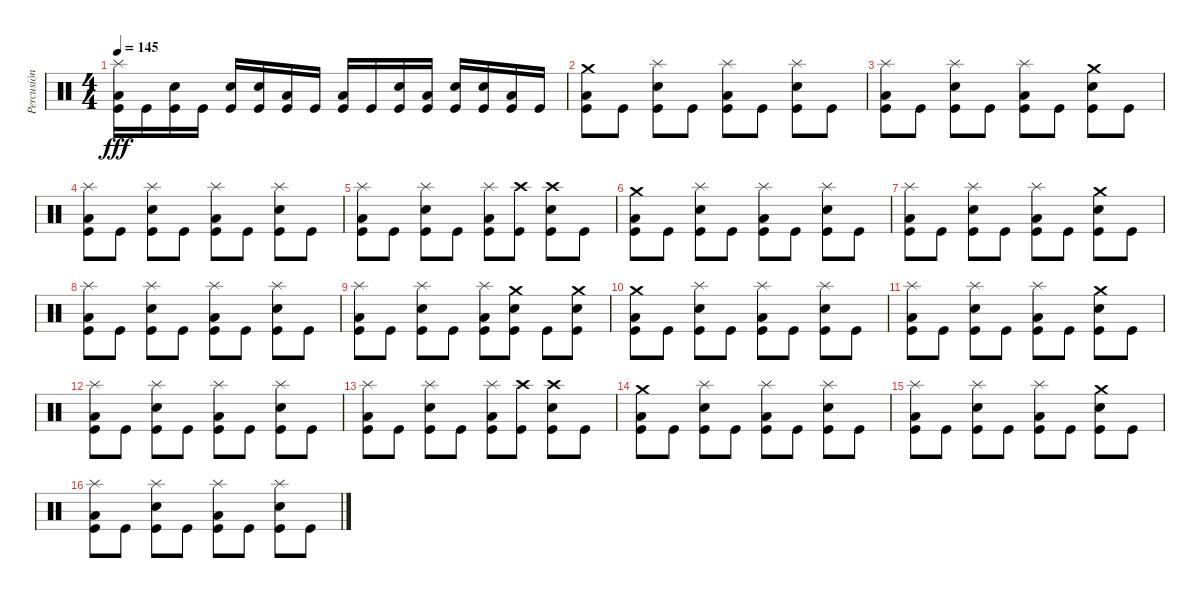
\track ("Percusión" "Percusión") {instrument percussion}
\staff {score}
\articulation defaults
\ts (4 4)
\tempo 145
\clef neutral
\ks c
("Splash (hit)" "Low Floor Tom (hit)" "Kick (hit)").16{dy fff} "Kick (hit)".16 ("Snare (hit) 2" "Kick (hit)").16 "Kick (hit)".16 ("Snare (hit) 2" "Kick (hit)").16 ("Snare (hit) 2" "Kick (hit)").16 ("Low Floor Tom (hit)" "Kick (hit)").16 "Kick (hit)".16 ("Low Floor Tom (hit)" "Kick (hit)").16 "Kick (hit)".16 ("Snare (hit) 2" "Kick (hit)").16 ("Low Floor Tom (hit)" "Kick (hit)").16 ("Snare (hit) 2" "Kick (hit)").16 ("Snare (hit) 2" "Kick (hit)").16 ("Low Floor Tom (hit)" "Kick (hit)").16 "Kick (hit)".16 |
("Crash medium (hit)" "Low Floor Tom (hit)" "Kick (hit)").8 "Kick (hit)".8 ("Splash (hit)" "Snare (hit) 2" "Kick (hit)").8 "Kick (hit)".8 ("Splash (hit)" "Low Floor Tom (hit)" "Kick (hit)").8 "Kick (hit)".8 ("Splash (hit)" "Snare (hit) 2" "Kick (hit)").8 "Kick (hit)".8 |
("Splash (hit)" "Low Floor Tom (hit)" "Kick (hit)").8 "Kick (hit)".8 ("Splash (hit)" "Snare (hit) 2" "Kick (hit)").8 "Kick (hit)".8 ("Splash (hit)" "Low Floor Tom (hit)" "Kick (hit)").8 "Kick (hit)".8 ("Crash medium (hit)" "Snare (hit) 2" "Kick (hit)").8 "Kick (hit)".8 |
("Splash (hit)" "Low Floor Tom (hit)" "Kick (hit)").8 "Kick (hit)".8 ("Splash (hit)" "Snare (hit) 2" "Kick (hit)").8 "Kick (hit)".8 ("Splash (hit)" "Low Floor Tom (hit)" "Kick (hit)").8 "Kick (hit)".8 ("Splash (hit)" "Snare (hit) 2" "Kick (hit)").8 "Kick (hit)".8 |
("Splash (hit)" "Low Floor Tom (hit)" "Kick (hit)").8 "Kick (hit)".8 ("Splash (hit)" "Snare (hit) 2" "Kick (hit)").8 "Kick (hit)".8 ("Splash (hit)" "Low Floor Tom (hit)" "Kick (hit)").8 ("Crash high (hit)" "Kick (hit)").8 ("Crash high (hit)" "Snare (hit) 2" "Kick (hit)").8 "Kick (hit)".8 |
("Crash medium (hit)" "Low Floor Tom (hit)" "Kick (hit)").8 "Kick (hit)".8 ("Splash (hit)" "Snare (hit) 2" "Kick (hit)").8 "Kick (hit)".8 ("Splash (hit)" "Low Floor Tom (hit)" "Kick (hit)").8 "Kick (hit)".8 ("Splash (hit)" "Snare (hit) 2" "Kick (hit)").8 "Kick (hit)".8 |
("Splash (hit)" "Low Floor Tom (hit)" "Kick (hit)").8 "Kick (hit)".8 ("Splash (hit)" "Snare (hit) 2" "Kick (hit)").8 "Kick (hit)".8 ("Splash (hit)" "Low Floor Tom (hit)" "Kick (hit)").8 "Kick (hit)".8 ("Crash medium (hit)" "Snare (hit) 2" "Kick (hit)").8 "Kick (hit)".8 |
("Splash (hit)" "Low Floor Tom (hit)" "Kick (hit)").8 "Kick (hit)".8 ("Splash (hit)" "Snare (hit) 2" "Kick (hit)").8 "Kick (hit)".8 ("Splash (hit)" "Low Floor Tom (hit)" "Kick (hit)").8 "Kick (hit)".8 ("Splash (hit)" "Snare (hit) 2" "Kick (hit)").8 "Kick (hit)".8 |
("Splash (hit)" "Low Floor Tom (hit)" "Kick (hit)").8 "Kick (hit)".8 ("Splash (hit)" "Snare (hit) 2" "Kick (hit)").8 "Kick (hit)".8 ("Splash (hit)" "Low Floor Tom (hit)" "Kick (hit)").8 ("Crash medium (hit)" "Snare (hit) 2" "Kick (hit)").8 "Kick (hit)".8 ("Crash medium (hit)" "Snare (hit) 2" "Kick (hit)").8 |
("Crash medium (hit)" "Low Floor Tom (hit)" "Kick (hit)").8 "Kick (hit)".8 ("Splash (hit)" "Snare (hit) 2" "Kick (hit)").8 "Kick (hit)".8 ("Splash (hit)" "Low Floor Tom (hit)" "Kick (hit)").8 "Kick (hit)".8 ("Splash (hit)" "Snare (hit) 2" "Kick (hit)").8 "Kick (hit)".8 |
("Splash (hit)" "Low Floor Tom (hit)" "Kick (hit)").8 "Kick (hit)".8 ("Splash (hit)" "Snare (hit) 2" "Kick (hit)").8 "Kick (hit)".8 ("Splash (hit)" "Low Floor Tom (hit)" "Kick (hit)").8 "Kick (hit)".8 ("Crash medium (hit)" "Snare (hit) 2" "Kick (hit)").8 "Kick (hit)".8 |
("Splash (hit)" "Low Floor Tom (hit)" "Kick (hit)").8 "Kick (hit)".8 ("Splash (hit)" "Snare (hit) 2" "Kick (hit)").8 "Kick (hit)".8 ("Splash (hit)" "Low Floor Tom (hit)" "Kick (hit)").8 "Kick (hit)".8 ("Splash (hit)" "Snare (hit) 2" "Kick (hit)").8 "Kick (hit)".8 |
("Splash (hit)" "Low Floor Tom (hit)" "Kick (hit)").8 "Kick (hit)".8 ("Splash (hit)" "Snare (hit) 2" "Kick (hit)").8 "Kick (hit)".8 ("Splash (hit)" "Low Floor Tom (hit)" "Kick (hit)").8 ("Crash high (hit)" "Kick (hit)").8 ("Crash high (hit)" "Snare (hit) 2" "Kick (hit)").8 "Kick (hit)".8 |
("Crash medium (hit)" "Low Floor Tom (hit)" "Kick (hit)").8 "Kick (hit)".8 ("Splash (hit)" "Snare (hit) 2" "Kick (hit)").8 "Kick (hit)".8 ("Splash (hit)" "Low Floor Tom (hit)" "Kick (hit)").8 "Kick (hit)".8 ("Splash (hit)" "Snare (hit) 2" "Kick (hit)").8 "Kick (hit)".8 |
("Splash (hit)" "Low Floor Tom (hit)" "Kick (hit)").8 "Kick (hit)".8 ("Splash (hit)" "Snare (hit) 2" "Kick (hit)").8 "Kick (hit)".8 ("Splash (hit)" "Low Floor Tom (hit)" "Kick (hit)").8 "Kick (hit)".8 ("Crash medium (hit)" "Snare (hit) 2" "Kick (hit)").8 "Kick (hit)".8 |
("Splash (hit)" "Low Floor Tom (hit)" "Kick (hit)").8 "Kick (hit)".8 ("Splash (hit)" "Snare (hit) 2" "Kick (hit)").8 "Kick (hit)".8 ("Splash (hit)" "Low Floor Tom (hit)" "Kick (hit)").8 "Kick (hit)".8 ("Splash (hit)" "Snare (hit) 2" "Kick (hit)").8 "Kick (hit)".8
